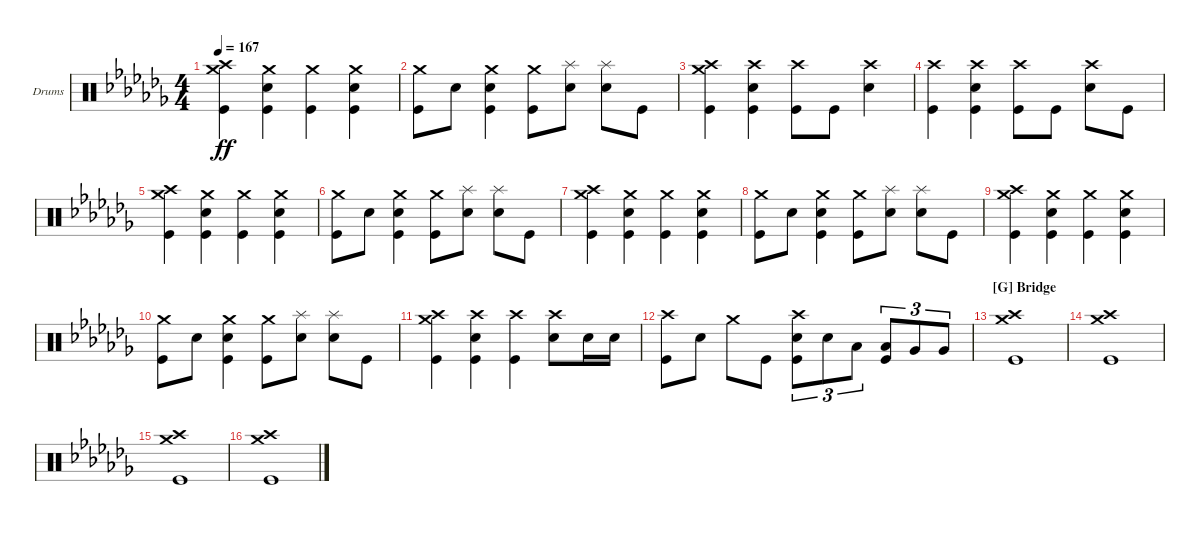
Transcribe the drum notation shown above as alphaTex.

\defaultSystemsLayout 4
\bracketExtendMode groupsimilarinstruments
\firstSystemTrackNameOrientation horizontal
\otherSystemsTrackNameOrientation horizontal
\track ("Drumkit" "Drums") {instrument percussion}
\staff {score}
\articulation defaults
\ts (4 4)
\tempo 167
\clef neutral
\ks abminor
("Crash medium (hit)" "Crash high (hit)" "Kick (hit)").4{dy ff} ("Snare (hit) 2" "Kick (hit)" "Crash medium (hit)").4 ("Kick (hit)" "Crash medium (hit)").4 ("Snare (hit) 2" "Kick (hit)" "Crash medium (hit)").4 |
("Kick (hit)" "Crash medium (hit)").8 "Snare (hit) 2".8 ("Snare (hit) 2" "Kick (hit)" "Crash medium (hit)").4 ("Kick (hit)" "Crash medium (hit)").8 ("Snare (hit) 2" "Splash (hit)").8 ("Snare (hit) 2" "Splash (hit)").8 "Kick (hit)".8 |
("Kick (hit)" "Crash high (hit)" "Crash medium (hit)").4 ("Kick (hit)" "Snare (hit) 2" "Crash high (hit)").4 ("Kick (hit)" "Crash high (hit)").8 "Kick (hit)".8 ("Snare (hit) 2" "Crash high (hit)").4 |
("Kick (hit)" "Crash high (hit)").4 ("Kick (hit)" "Snare (hit) 2" "Crash high (hit)").4 ("Kick (hit)" "Crash high (hit)").8 "Kick (hit)".8 ("Snare (hit) 2" "Crash high (hit)").8 "Kick (hit)".8 |
("Crash medium (hit)" "Crash high (hit)" "Kick (hit)").4 ("Snare (hit) 2" "Kick (hit)" "Crash medium (hit)").4 ("Kick (hit)" "Crash medium (hit)").4 ("Snare (hit) 2" "Kick (hit)" "Crash medium (hit)").4 |
("Kick (hit)" "Crash medium (hit)").8 "Snare (hit) 2".8 ("Snare (hit) 2" "Kick (hit)" "Crash medium (hit)").4 ("Kick (hit)" "Crash medium (hit)").8 ("Snare (hit) 2" "Splash (hit)").8 ("Snare (hit) 2" "Splash (hit)").8 "Kick (hit)".8 |
("Crash medium (hit)" "Crash high (hit)" "Kick (hit)").4 ("Snare (hit) 2" "Kick (hit)" "Crash medium (hit)").4 ("Kick (hit)" "Crash medium (hit)").4 ("Snare (hit) 2" "Kick (hit)" "Crash medium (hit)").4 |
("Kick (hit)" "Crash medium (hit)").8 "Snare (hit) 2".8 ("Snare (hit) 2" "Kick (hit)" "Crash medium (hit)").4 ("Kick (hit)" "Crash medium (hit)").8 ("Snare (hit) 2" "Splash (hit)").8 ("Snare (hit) 2" "Splash (hit)").8 "Kick (hit)".8 |
("Crash medium (hit)" "Crash high (hit)" "Kick (hit)").4 ("Snare (hit) 2" "Kick (hit)" "Crash medium (hit)").4 ("Kick (hit)" "Crash medium (hit)").4 ("Snare (hit) 2" "Kick (hit)" "Crash medium (hit)").4 |
("Kick (hit)" "Crash medium (hit)").8 "Snare (hit) 2".8 ("Snare (hit) 2" "Kick (hit)" "Crash medium (hit)").4 ("Kick (hit)" "Crash medium (hit)").8 ("Snare (hit) 2" "Splash (hit)").8 ("Snare (hit) 2" "Splash (hit)").8 "Kick (hit)".8 |
("Kick (hit)" "Crash high (hit)" "Crash medium (hit)").4 ("Kick (hit)" "Snare (hit) 2" "Crash high (hit)").4 ("Kick (hit)" "Crash high (hit)").4 ("Snare (hit) 2" "Crash high (hit)").8 "Snare (hit) 2".16 "Snare (hit) 2".16 |
("Kick (hit)" "Crash high (hit)").8 "Snare (hit) 2".8 "Crash medium (hit)".8 "Kick (hit)".8 ("Snare (hit) 2" "Crash high (hit)" "Kick (hit)").8{tu (3 2)} "Snare (hit) 2".8{tu (3 2)} "Low Tom (hit)".8{tu (3 2)} ("Low Tom (hit)" "Kick (hit)").8{tu (3 2)} "Very Low Tom (hit)".8{tu (3 2)} "Very Low Tom (hit)".8{tu (3 2)} |
\section ("G" "Bridge")
("Kick (hit)" "Crash high (hit)" "Crash medium (hit)").1 |
("Kick (hit)" "Crash high (hit)" "Crash medium (hit)").1 |
("Kick (hit)" "Crash high (hit)" "Crash medium (hit)").1 |
("Kick (hit)" "Crash high (hit)" "Crash medium (hit)").1
